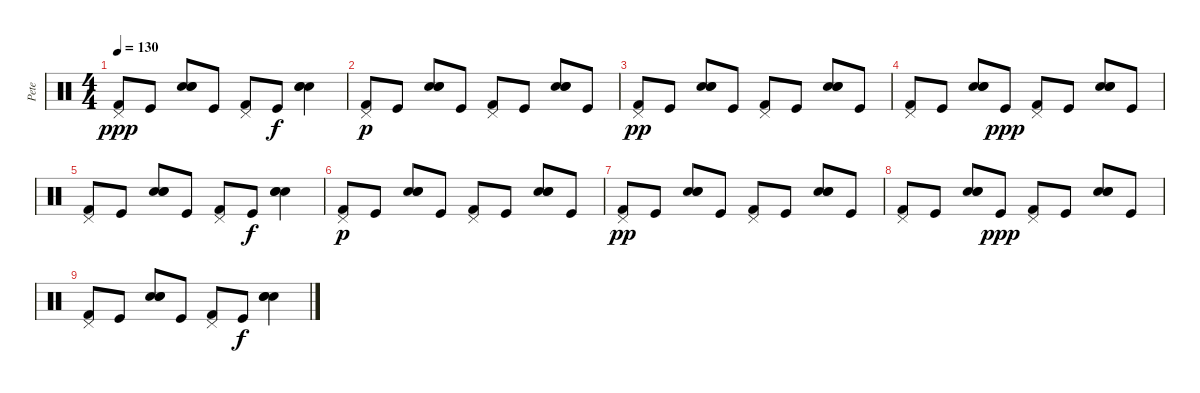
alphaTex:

\track ("Pete" "Pete") {instrument percussion}
\staff {score}
\articulation defaults
\ts (4 4)
\tempo 130
\clef neutral
\ks c
("Pedal Hi-Hat (hit)" "Kick (hit) 2").8{dy ppp} "Kick (hit)".8 ("Hand Clap (hit)" "Snare (hit) 2" "Electric Snare (hit)").8 "Kick (hit)".8 ("Pedal Hi-Hat (hit)" "Kick (hit) 2").8 "Kick (hit)".8{dy f} ("Hand Clap (hit)" "Snare (hit) 2" "Electric Snare (hit)").4 |
("Pedal Hi-Hat (hit)" "Kick (hit) 2").8{dy p} "Kick (hit)".8 ("Hand Clap (hit)" "Snare (hit) 2" "Electric Snare (hit)").8 "Kick (hit)".8 ("Pedal Hi-Hat (hit)" "Kick (hit) 2").8 "Kick (hit)".8 ("Hand Clap (hit)" "Snare (hit) 2" "Electric Snare (hit)").8 "Kick (hit)".8 |
("Pedal Hi-Hat (hit)" "Kick (hit) 2").8{dy pp} "Kick (hit)".8 ("Hand Clap (hit)" "Snare (hit) 2" "Electric Snare (hit)").8 "Kick (hit)".8 ("Pedal Hi-Hat (hit)" "Kick (hit) 2").8 "Kick (hit)".8 ("Hand Clap (hit)" "Snare (hit) 2" "Electric Snare (hit)").8 "Kick (hit)".8 |
("Pedal Hi-Hat (hit)" "Kick (hit) 2").8 "Kick (hit)".8 ("Hand Clap (hit)" "Snare (hit) 2" "Electric Snare (hit)").8 "Kick (hit)".8{dy ppp} ("Pedal Hi-Hat (hit)" "Kick (hit) 2").8 "Kick (hit)".8 ("Hand Clap (hit)" "Snare (hit) 2" "Electric Snare (hit)").8 "Kick (hit)".8 |
("Pedal Hi-Hat (hit)" "Kick (hit) 2").8 "Kick (hit)".8 ("Hand Clap (hit)" "Snare (hit) 2" "Electric Snare (hit)").8 "Kick (hit)".8 ("Pedal Hi-Hat (hit)" "Kick (hit) 2").8 "Kick (hit)".8{dy f} ("Hand Clap (hit)" "Snare (hit) 2" "Electric Snare (hit)").4 |
("Pedal Hi-Hat (hit)" "Kick (hit) 2").8{dy p} "Kick (hit)".8 ("Hand Clap (hit)" "Snare (hit) 2" "Electric Snare (hit)").8 "Kick (hit)".8 ("Pedal Hi-Hat (hit)" "Kick (hit) 2").8 "Kick (hit)".8 ("Hand Clap (hit)" "Snare (hit) 2" "Electric Snare (hit)").8 "Kick (hit)".8 |
("Pedal Hi-Hat (hit)" "Kick (hit) 2").8{dy pp volume 0} "Kick (hit)".8 ("Hand Clap (hit)" "Snare (hit) 2" "Electric Snare (hit)").8 "Kick (hit)".8 ("Pedal Hi-Hat (hit)" "Kick (hit) 2").8 "Kick (hit)".8 ("Hand Clap (hit)" "Snare (hit) 2" "Electric Snare (hit)").8 "Kick (hit)".8 |
("Pedal Hi-Hat (hit)" "Kick (hit) 2").8 "Kick (hit)".8 ("Hand Clap (hit)" "Snare (hit) 2" "Electric Snare (hit)").8 "Kick (hit)".8{dy ppp} ("Pedal Hi-Hat (hit)" "Kick (hit) 2").8 "Kick (hit)".8 ("Hand Clap (hit)" "Snare (hit) 2" "Electric Snare (hit)").8 "Kick (hit)".8 |
("Pedal Hi-Hat (hit)" "Kick (hit) 2").8 "Kick (hit)".8 ("Hand Clap (hit)" "Snare (hit) 2" "Electric Snare (hit)").8 "Kick (hit)".8 ("Pedal Hi-Hat (hit)" "Kick (hit) 2").8 "Kick (hit)".8{dy f} ("Hand Clap (hit)" "Snare (hit) 2" "Electric Snare (hit)").4
